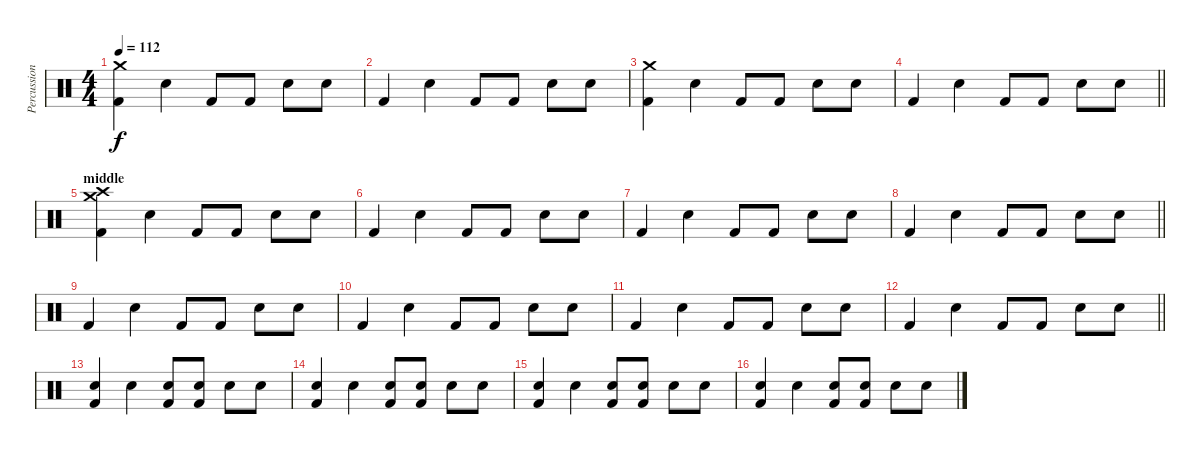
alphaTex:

\track ("Percussions" "Percussion") {instrument percussion}
\staff {score}
\articulation defaults
\ts (4 4)
\tempo 112
\clef neutral
\ks c
("Crash medium (hit)" "Kick (hit) 2").4{dy f} "Electric Snare (hit)".4 "Kick (hit) 2".8 "Kick (hit) 2".8 "Electric Snare (hit)".8 "Electric Snare (hit)".8 |
"Kick (hit) 2".4 "Electric Snare (hit)".4 "Kick (hit) 2".8 "Kick (hit) 2".8 "Electric Snare (hit)".8 "Electric Snare (hit)".8 |
("Crash medium (hit)" "Kick (hit) 2").4 "Electric Snare (hit)".4 "Kick (hit) 2".8 "Kick (hit) 2".8 "Electric Snare (hit)".8 "Electric Snare (hit)".8 |
\barLineRight lightlight "Kick (hit) 2".4 "Electric Snare (hit)".4 "Kick (hit) 2".8 "Kick (hit) 2".8 "Electric Snare (hit)".8 "Electric Snare (hit)".8
|
\section ("" "middle")
("Crash high (hit)" "Crash medium (hit)" "Kick (hit) 2").4 "Electric Snare (hit)".4 "Kick (hit) 2".8 "Kick (hit) 2".8 "Electric Snare (hit)".8 "Electric Snare (hit)".8 |
"Kick (hit) 2".4 "Electric Snare (hit)".4 "Kick (hit) 2".8 "Kick (hit) 2".8 "Electric Snare (hit)".8 "Electric Snare (hit)".8 |
"Kick (hit) 2".4 "Electric Snare (hit)".4 "Kick (hit) 2".8 "Kick (hit) 2".8 "Electric Snare (hit)".8 "Electric Snare (hit)".8 |
\barLineRight lightlight "Kick (hit) 2".4 "Electric Snare (hit)".4 "Kick (hit) 2".8 "Kick (hit) 2".8 "Electric Snare (hit)".8 "Electric Snare (hit)".8
|
"Kick (hit) 2".4 "Electric Snare (hit)".4 "Kick (hit) 2".8 "Kick (hit) 2".8 "Electric Snare (hit)".8 "Electric Snare (hit)".8 |
"Kick (hit) 2".4 "Electric Snare (hit)".4 "Kick (hit) 2".8 "Kick (hit) 2".8 "Electric Snare (hit)".8 "Electric Snare (hit)".8 |
"Kick (hit) 2".4 "Electric Snare (hit)".4 "Kick (hit) 2".8 "Kick (hit) 2".8 "Electric Snare (hit)".8 "Electric Snare (hit)".8 |
\barLineRight lightlight "Kick (hit) 2".4 "Electric Snare (hit)".4 "Kick (hit) 2".8 "Kick (hit) 2".8 "Electric Snare (hit)".8 "Electric Snare (hit)".8
|
("Snare (hit)" "Kick (hit) 2").4 "Electric Snare (hit)".4 ("Snare (hit)" "Kick (hit) 2").8 ("Snare (hit)" "Kick (hit) 2").8 "Electric Snare (hit)".8 "Electric Snare (hit)".8 |
("Snare (hit)" "Kick (hit) 2").4 "Electric Snare (hit)".4 ("Snare (hit)" "Kick (hit) 2").8 ("Snare (hit)" "Kick (hit) 2").8 "Electric Snare (hit)".8 "Electric Snare (hit)".8 |
("Snare (hit)" "Kick (hit) 2").4 "Electric Snare (hit)".4 ("Snare (hit)" "Kick (hit) 2").8 ("Snare (hit)" "Kick (hit) 2").8 "Electric Snare (hit)".8 "Electric Snare (hit)".8 |
("Snare (hit)" "Kick (hit) 2").4 "Electric Snare (hit)".4 ("Snare (hit)" "Kick (hit) 2").8 ("Snare (hit)" "Kick (hit) 2").8 "Electric Snare (hit)".8 "Electric Snare (hit)".8
